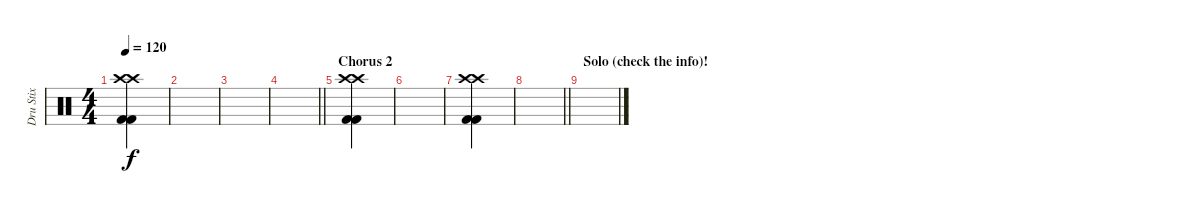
\track ("Dru Stix" "Dru Stix") {instrument percussion}
\staff {score}
\articulation defaults
\ts (4 4)
\tempo 120
\clef neutral
\ks c
("Crash high (hit)" "Crash high (hit)" "Kick (hit) 2" "Kick (hit) 2").4{dy f} |
|
|
\barLineRight lightlight
|
\section ("" "Chorus 2")
("Crash high (hit)" "Crash high (hit)" "Kick (hit) 2" "Kick (hit) 2").4 |
|
("Crash high (hit)" "Crash high (hit)" "Kick (hit) 2" "Kick (hit) 2").4 |
\barLineRight lightlight
|
\section ("" "Solo (check the info)!")
